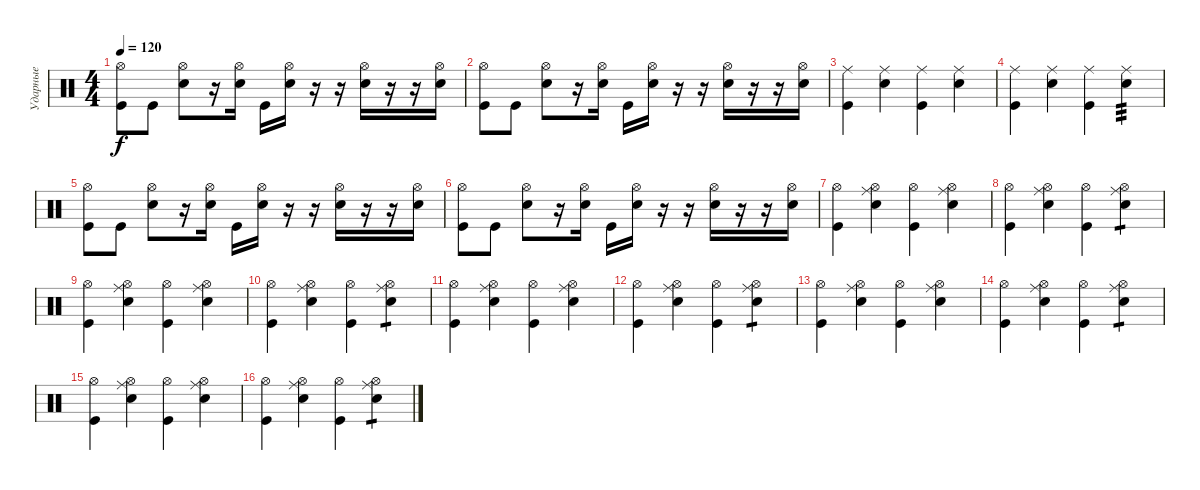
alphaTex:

\track ("Ударные" "Ударные") {instrument percussion}
\staff {score}
\articulation defaults
\ts (4 4)
\tempo 120
\clef neutral
\ks c
("Hi-Hat (open)" "Kick (hit)").8{dy f} "Kick (hit)".8 ("Hi-Hat (open)" "Snare (hit) 2").8 r.16 ("Hi-Hat (open)" "Snare (hit) 2").16 "Kick (hit)".16 ("Hi-Hat (open)" "Snare (hit) 2").16 r.16 r.16 ("Hi-Hat (open)" "Snare (hit) 2").16 r.16 r.16 ("Hi-Hat (open)" "Snare (hit) 2").16 |
("Hi-Hat (open)" "Kick (hit)").8 "Kick (hit)".8 ("Hi-Hat (open)" "Snare (hit) 2").8 r.16 ("Hi-Hat (open)" "Snare (hit) 2").16 "Kick (hit)".16 ("Hi-Hat (open)" "Snare (hit) 2").16 r.16 r.16 ("Hi-Hat (open)" "Snare (hit) 2").16 r.16 r.16 ("Hi-Hat (open)" "Snare (hit) 2").16 |
("Ride (middle)" "Kick (hit)").4 ("Ride (middle)" "Snare (hit) 2").4 ("Ride (middle)" "Kick (hit)").4 ("Ride (middle)" "Snare (hit) 2").4 |
("Ride (middle)" "Kick (hit)").4 ("Ride (middle)" "Snare (hit) 2").4 ("Ride (middle)" "Kick (hit)").4 ("Ride (middle)" "Snare (hit) 2").4{tp 3} |
("Hi-Hat (open)" "Kick (hit)").8 "Kick (hit)".8 ("Hi-Hat (open)" "Snare (hit) 2").8 r.16 ("Hi-Hat (open)" "Snare (hit) 2").16 "Kick (hit)".16 ("Hi-Hat (open)" "Snare (hit) 2").16 r.16 r.16 ("Hi-Hat (open)" "Snare (hit) 2").16 r.16 r.16 ("Hi-Hat (open)" "Snare (hit) 2").16 |
("Hi-Hat (open)" "Kick (hit)").8 "Kick (hit)".8 ("Hi-Hat (open)" "Snare (hit) 2").8 r.16 ("Hi-Hat (open)" "Snare (hit) 2").16 "Kick (hit)".16 ("Hi-Hat (open)" "Snare (hit) 2").16 r.16 r.16 ("Hi-Hat (open)" "Snare (hit) 2").16 r.16 r.16 ("Hi-Hat (open)" "Snare (hit) 2").16 |
("Hi-Hat (open)" "Kick (hit)").4 ("Ride (middle)" "Hi-Hat (open)" "Snare (hit) 2").4 ("Hi-Hat (open)" "Kick (hit)").4 ("Ride (middle)" "Hi-Hat (open)" "Snare (hit) 2").4 |
("Hi-Hat (open)" "Kick (hit)").4 ("Ride (middle)" "Hi-Hat (open)" "Snare (hit) 2").4 ("Hi-Hat (open)" "Kick (hit)").4 ("Ride (middle)" "Hi-Hat (open)" "Snare (hit) 2").4{tp 1} |
("Hi-Hat (open)" "Kick (hit)").4 ("Ride (middle)" "Hi-Hat (open)" "Snare (hit) 2").4 ("Hi-Hat (open)" "Kick (hit)").4 ("Ride (middle)" "Hi-Hat (open)" "Snare (hit) 2").4 |
("Hi-Hat (open)" "Kick (hit)").4 ("Ride (middle)" "Hi-Hat (open)" "Snare (hit) 2").4 ("Hi-Hat (open)" "Kick (hit)").4 ("Ride (middle)" "Hi-Hat (open)" "Snare (hit) 2").4{tp 1} |
("Hi-Hat (open)" "Kick (hit)").4 ("Ride (middle)" "Hi-Hat (open)" "Snare (hit) 2").4 ("Hi-Hat (open)" "Kick (hit)").4 ("Ride (middle)" "Hi-Hat (open)" "Snare (hit) 2").4 |
("Hi-Hat (open)" "Kick (hit)").4 ("Ride (middle)" "Hi-Hat (open)" "Snare (hit) 2").4 ("Hi-Hat (open)" "Kick (hit)").4 ("Ride (middle)" "Hi-Hat (open)" "Snare (hit) 2").4{tp 1} |
("Hi-Hat (open)" "Kick (hit)").4 ("Ride (middle)" "Hi-Hat (open)" "Snare (hit) 2").4 ("Hi-Hat (open)" "Kick (hit)").4 ("Ride (middle)" "Hi-Hat (open)" "Snare (hit) 2").4 |
("Hi-Hat (open)" "Kick (hit)").4 ("Ride (middle)" "Hi-Hat (open)" "Snare (hit) 2").4 ("Hi-Hat (open)" "Kick (hit)").4 ("Ride (middle)" "Hi-Hat (open)" "Snare (hit) 2").4{tp 1} |
("Hi-Hat (open)" "Kick (hit)").4 ("Ride (middle)" "Hi-Hat (open)" "Snare (hit) 2").4 ("Hi-Hat (open)" "Kick (hit)").4 ("Ride (middle)" "Hi-Hat (open)" "Snare (hit) 2").4 |
("Hi-Hat (open)" "Kick (hit)").4 ("Ride (middle)" "Hi-Hat (open)" "Snare (hit) 2").4 ("Hi-Hat (open)" "Kick (hit)").4 ("Ride (middle)" "Hi-Hat (open)" "Snare (hit) 2").4{tp 1}
